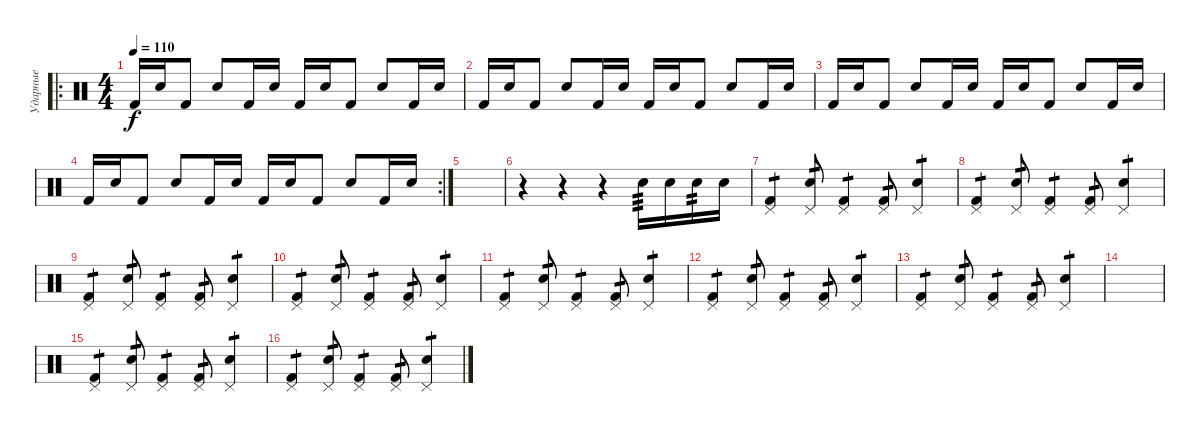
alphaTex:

\track ("Ударные" "Ударные") {instrument percussion}
\staff {score}
\articulation defaults
\ro
\ts (4 4)
\tempo 110
\clef neutral
\ks c "Kick (hit) 2".16{dy f} "Electric Snare (hit)".16 "Kick (hit) 2".8 "Electric Snare (hit)".8 "Kick (hit) 2".16 "Electric Snare (hit)".16 "Kick (hit) 2".16 "Electric Snare (hit)".16 "Kick (hit) 2".8 "Electric Snare (hit)".8 "Kick (hit) 2".16 "Electric Snare (hit)".16
|
"Kick (hit) 2".16 "Electric Snare (hit)".16 "Kick (hit) 2".8 "Electric Snare (hit)".8 "Kick (hit) 2".16 "Electric Snare (hit)".16 "Kick (hit) 2".16 "Electric Snare (hit)".16 "Kick (hit) 2".8 "Electric Snare (hit)".8 "Kick (hit) 2".16 "Electric Snare (hit)".16 |
"Kick (hit) 2".16 "Electric Snare (hit)".16 "Kick (hit) 2".8 "Electric Snare (hit)".8 "Kick (hit) 2".16 "Electric Snare (hit)".16 "Kick (hit) 2".16 "Electric Snare (hit)".16 "Kick (hit) 2".8 "Electric Snare (hit)".8 "Kick (hit) 2".16 "Electric Snare (hit)".16 |
\rc 2 "Kick (hit) 2".16 "Electric Snare (hit)".16 "Kick (hit) 2".8 "Electric Snare (hit)".8 "Kick (hit) 2".16 "Electric Snare (hit)".16 "Kick (hit) 2".16 "Electric Snare (hit)".16 "Kick (hit) 2".8 "Electric Snare (hit)".8 "Kick (hit) 2".16 "Electric Snare (hit)".16
|
|
r.4 r.4 r.4 "Electric Snare (hit)".16{tp 3} "Electric Snare (hit)".16 "Electric Snare (hit)".16{tp 2} "Electric Snare (hit)".16 |
("Pedal Hi-Hat (hit)" "Kick (hit) 2").4{tp 1} ("Pedal Hi-Hat (hit)" "Electric Snare (hit)").8{tp 1} ("Pedal Hi-Hat (hit)" "Kick (hit) 2").4{tp 1} ("Pedal Hi-Hat (hit)" "Kick (hit) 2").8{tp 1} ("Pedal Hi-Hat (hit)" "Electric Snare (hit)").4{tp 1} |
("Pedal Hi-Hat (hit)" "Kick (hit) 2").4{tp 1} ("Pedal Hi-Hat (hit)" "Electric Snare (hit)").8{tp 1} ("Pedal Hi-Hat (hit)" "Kick (hit) 2").4{tp 1} ("Pedal Hi-Hat (hit)" "Kick (hit) 2").8{tp 1} ("Pedal Hi-Hat (hit)" "Electric Snare (hit)").4{tp 1} |
("Pedal Hi-Hat (hit)" "Kick (hit) 2").4{tp 1} ("Pedal Hi-Hat (hit)" "Electric Snare (hit)").8{tp 1} ("Pedal Hi-Hat (hit)" "Kick (hit) 2").4{tp 1} ("Pedal Hi-Hat (hit)" "Kick (hit) 2").8{tp 1} ("Pedal Hi-Hat (hit)" "Electric Snare (hit)").4{tp 1} |
("Pedal Hi-Hat (hit)" "Kick (hit) 2").4{tp 1} ("Pedal Hi-Hat (hit)" "Electric Snare (hit)").8{tp 1} ("Pedal Hi-Hat (hit)" "Kick (hit) 2").4{tp 1} ("Pedal Hi-Hat (hit)" "Kick (hit) 2").8{tp 1} ("Pedal Hi-Hat (hit)" "Electric Snare (hit)").4{tp 1} |
("Pedal Hi-Hat (hit)" "Kick (hit) 2").4{tp 1} ("Pedal Hi-Hat (hit)" "Electric Snare (hit)").8{tp 1} ("Pedal Hi-Hat (hit)" "Kick (hit) 2").4{tp 1} ("Pedal Hi-Hat (hit)" "Kick (hit) 2").8{tp 1} ("Pedal Hi-Hat (hit)" "Electric Snare (hit)").4{tp 1} |
("Pedal Hi-Hat (hit)" "Kick (hit) 2").4{tp 1} ("Pedal Hi-Hat (hit)" "Electric Snare (hit)").8{tp 1} ("Pedal Hi-Hat (hit)" "Kick (hit) 2").4{tp 1} ("Pedal Hi-Hat (hit)" "Kick (hit) 2").8{tp 1} ("Pedal Hi-Hat (hit)" "Electric Snare (hit)").4{tp 1} |
("Pedal Hi-Hat (hit)" "Kick (hit) 2").4{tp 1} ("Pedal Hi-Hat (hit)" "Electric Snare (hit)").8{tp 1} ("Pedal Hi-Hat (hit)" "Kick (hit) 2").4{tp 1} ("Pedal Hi-Hat (hit)" "Kick (hit) 2").8{tp 1} ("Pedal Hi-Hat (hit)" "Electric Snare (hit)").4{tp 1} |
|
("Pedal Hi-Hat (hit)" "Kick (hit) 2").4{tp 1} ("Pedal Hi-Hat (hit)" "Electric Snare (hit)").8{tp 1} ("Pedal Hi-Hat (hit)" "Kick (hit) 2").4{tp 1} ("Pedal Hi-Hat (hit)" "Kick (hit) 2").8{tp 1} ("Pedal Hi-Hat (hit)" "Electric Snare (hit)").4{tp 1} |
("Pedal Hi-Hat (hit)" "Kick (hit) 2").4{tp 1} ("Pedal Hi-Hat (hit)" "Electric Snare (hit)").8{tp 1} ("Pedal Hi-Hat (hit)" "Kick (hit) 2").4{tp 1} ("Pedal Hi-Hat (hit)" "Kick (hit) 2").8{tp 1} ("Pedal Hi-Hat (hit)" "Electric Snare (hit)").4{tp 1}
